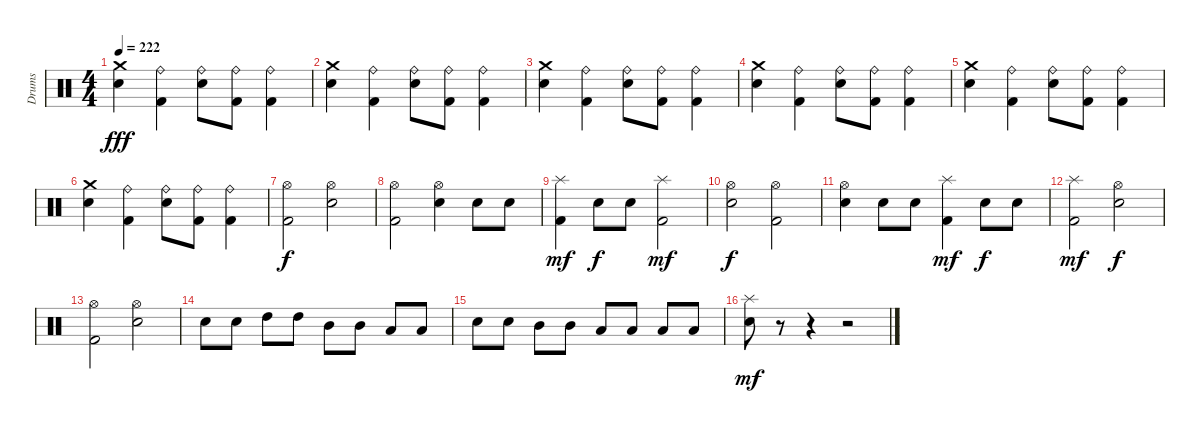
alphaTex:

\track ("Drums" "Drums") {instrument percussion}
\staff {score}
\articulation defaults
\ts (4 4)
\tempo 222
\clef neutral
\ks c
("Electric Snare (hit)" "Crash medium (hit)").4{dy fff} ("Kick (hit) 2" "Ride (bell)").4 ("Electric Snare (hit)" "Ride (bell)").8 ("Kick (hit) 2" "Ride (bell)").8 ("Kick (hit) 2" "Ride (bell)").4 |
("Electric Snare (hit)" "Crash medium (hit)").4 ("Kick (hit) 2" "Ride (bell)").4 ("Electric Snare (hit)" "Ride (bell)").8 ("Kick (hit) 2" "Ride (bell)").8 ("Kick (hit) 2" "Ride (bell)").4 |
("Electric Snare (hit)" "Crash medium (hit)").4 ("Kick (hit) 2" "Ride (bell)").4 ("Electric Snare (hit)" "Ride (bell)").8 ("Kick (hit) 2" "Ride (bell)").8 ("Kick (hit) 2" "Ride (bell)").4 |
("Electric Snare (hit)" "Crash medium (hit)").4 ("Kick (hit) 2" "Ride (bell)").4 ("Electric Snare (hit)" "Ride (bell)").8 ("Kick (hit) 2" "Ride (bell)").8 ("Kick (hit) 2" "Ride (bell)").4 |
("Electric Snare (hit)" "Crash medium (hit)").4 ("Kick (hit) 2" "Ride (bell)").4 ("Electric Snare (hit)" "Ride (bell)").8 ("Kick (hit) 2" "Ride (bell)").8 ("Kick (hit) 2" "Ride (bell)").4 |
("Electric Snare (hit)" "Crash medium (hit)").4 ("Kick (hit) 2" "Ride (bell)").4 ("Electric Snare (hit)" "Ride (bell)").8 ("Kick (hit) 2" "Ride (bell)").8 ("Kick (hit) 2" "Ride (bell)").4 |
("Kick (hit) 2" "Hi-Hat (open)").2{dy f} ("Electric Snare (hit)" "Hi-Hat (open)").2 |
("Kick (hit) 2" "Hi-Hat (open)").2 ("Electric Snare (hit)" "Hi-Hat (open)").4 "Electric Snare (hit)".8 "Electric Snare (hit)".8 |
("Kick (hit) 2" "Splash (hit)").4{dy mf} "Electric Snare (hit)".8{dy f} "Electric Snare (hit)".8 ("Kick (hit) 2" "Splash (hit)").2{dy mf} |
("Electric Snare (hit)" "Hi-Hat (open)").2{dy f} ("Kick (hit) 2" "Hi-Hat (open)").2 |
("Electric Snare (hit)" "Hi-Hat (open)").4 "Electric Snare (hit)".8 "Electric Snare (hit)".8 ("Kick (hit) 2" "Splash (hit)").4{dy mf} "Electric Snare (hit)".8{dy f} "Electric Snare (hit)".8 |
("Kick (hit) 2" "Splash (hit)").2{dy mf} ("Electric Snare (hit)" "Hi-Hat (open)").2{dy f} |
("Kick (hit) 2" "Hi-Hat (open)").2 ("Electric Snare (hit)" "Hi-Hat (open)").2 |
"Electric Snare (hit)".8 "Electric Snare (hit)".8 "High Tom (hit)".8 "High Tom (hit)".8 "Mid Tom (hit)".8 "Mid Tom (hit)".8 "Low Tom (hit)".8 "Low Tom (hit)".8 |
"Electric Snare (hit)".8 "Electric Snare (hit)".8 "Mid Tom (hit)".8 "Mid Tom (hit)".8 "Low Tom (hit)".8 "Low Tom (hit)".8 "Low Floor Tom (hit)".8 "Low Floor Tom (hit)".8 |
("Electric Snare (hit)" "Splash (hit)").8{dy mf} r.8 r.4 r.2
